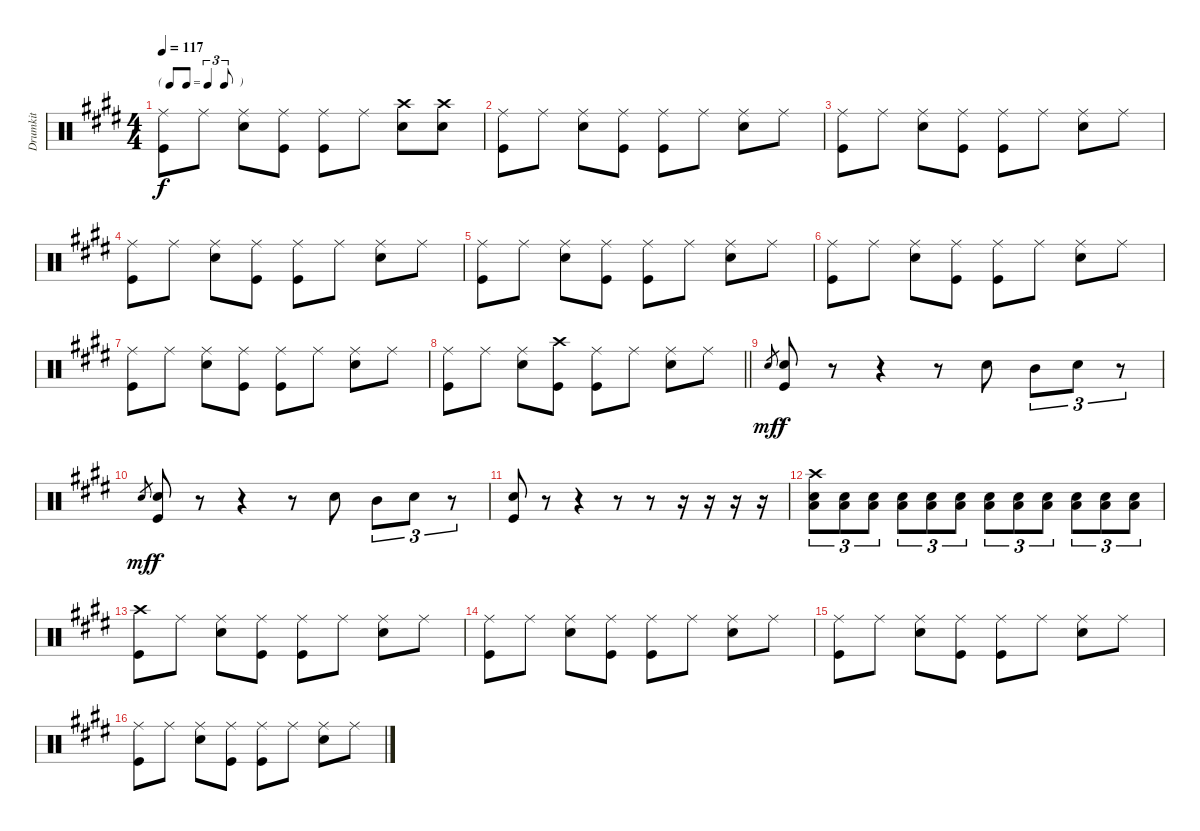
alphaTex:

\track ("Drumkit" "Drumkit") {instrument percussion}
\staff {score}
\articulation defaults
\ts (4 4)
\tf triplet8th
\tempo 117
\clef neutral
\ks e
("Ride (middle)" "Kick (hit)").8{dy f} "Ride (middle)".8 ("Ride (middle)" "Snare (hit) 2").8 ("Ride (middle)" "Kick (hit)").8 ("Ride (middle)" "Kick (hit)").8 "Ride (middle)".8 ("Crash high (hit)" "Snare (hit) 2").8 ("Crash high (hit)" "Snare (hit) 2").8 |
("Ride (middle)" "Kick (hit)").8 "Ride (middle)".8 ("Ride (middle)" "Snare (hit) 2").8 ("Ride (middle)" "Kick (hit)").8 ("Ride (middle)" "Kick (hit)").8 "Ride (middle)".8 ("Ride (middle)" "Snare (hit) 2").8 "Ride (middle)".8 |
("Ride (middle)" "Kick (hit)").8 "Ride (middle)".8 ("Ride (middle)" "Snare (hit) 2").8 ("Ride (middle)" "Kick (hit)").8 ("Ride (middle)" "Kick (hit)").8 "Ride (middle)".8 ("Ride (middle)" "Snare (hit) 2").8 "Ride (middle)".8 |
("Ride (middle)" "Kick (hit)").8 "Ride (middle)".8 ("Ride (middle)" "Snare (hit) 2").8 ("Ride (middle)" "Kick (hit)").8 ("Ride (middle)" "Kick (hit)").8 "Ride (middle)".8 ("Ride (middle)" "Snare (hit) 2").8 "Ride (middle)".8 |
("Ride (middle)" "Kick (hit)").8 "Ride (middle)".8 ("Ride (middle)" "Snare (hit) 2").8 ("Ride (middle)" "Kick (hit)").8 ("Ride (middle)" "Kick (hit)").8 "Ride (middle)".8 ("Ride (middle)" "Snare (hit) 2").8 "Ride (middle)".8 |
("Ride (middle)" "Kick (hit)").8 "Ride (middle)".8 ("Ride (middle)" "Snare (hit) 2").8 ("Ride (middle)" "Kick (hit)").8 ("Ride (middle)" "Kick (hit)").8 "Ride (middle)".8 ("Ride (middle)" "Snare (hit) 2").8 "Ride (middle)".8 |
("Ride (middle)" "Kick (hit)").8 "Ride (middle)".8 ("Ride (middle)" "Snare (hit) 2").8 ("Ride (middle)" "Kick (hit)").8 ("Ride (middle)" "Kick (hit)").8 "Ride (middle)".8 ("Ride (middle)" "Snare (hit) 2").8 "Ride (middle)".8 |
\barLineRight lightlight
("Ride (middle)" "Kick (hit)").8 "Ride (middle)".8 ("Ride (middle)" "Snare (hit) 2").8 ("Crash high (hit)" "Kick (hit)").8 ("Ride (middle)" "Kick (hit)").8 "Ride (middle)".8 ("Ride (middle)" "Snare (hit) 2").8 "Ride (middle)".8 |
"Snare (hit)".8{gr dy mf} ("Snare (hit) 2" "Kick (hit)").8{dy f} r.8 r.4 r.8 "Snare (hit) 2".8 "Mid Tom (hit)".8{tu (3 2)} "Snare (hit) 2".8{tu (3 2)} r.8{tu (3 2)} |
"Snare (hit)".8{gr dy mf} ("Snare (hit) 2" "Kick (hit)").8{dy f} r.8 r.4 r.8 "Snare (hit) 2".8 "Mid Tom (hit)".8{tu (3 2)} "Snare (hit) 2".8{tu (3 2)} r.8{tu (3 2)} |
("Snare (hit) 2" "Kick (hit)").8 r.8 r.4 r.8 r.8 r.16 r.16 r.16 r.16 |
("Crash high (hit)" "Snare (hit) 2" "Low Floor Tom (hit)").8{tu (3 2)} ("Snare (hit) 2" "Low Floor Tom (hit)").8{tu (3 2)} ("Snare (hit) 2" "Low Floor Tom (hit)").8{tu (3 2)} ("Snare (hit) 2" "Low Floor Tom (hit)").8{tu (3 2)} ("Snare (hit) 2" "Low Floor Tom (hit)").8{tu (3 2)} ("Snare (hit) 2" "Low Floor Tom (hit)").8{tu (3 2)} ("Snare (hit) 2" "Low Floor Tom (hit)").8{tu (3 2)} ("Snare (hit) 2" "Low Floor Tom (hit)").8{tu (3 2)} ("Snare (hit) 2" "Low Floor Tom (hit)").8{tu (3 2)} ("Snare (hit) 2" "Low Floor Tom (hit)").8{tu (3 2)} ("Snare (hit) 2" "Low Floor Tom (hit)").8{tu (3 2)} ("Snare (hit) 2" "Low Floor Tom (hit)").8{tu (3 2)} |
("Crash high (hit)" "Kick (hit)").8 "Ride (middle)".8 ("Ride (middle)" "Snare (hit) 2").8 ("Ride (middle)" "Kick (hit)").8 ("Ride (middle)" "Kick (hit)").8 "Ride (middle)".8 ("Ride (middle)" "Snare (hit) 2").8 "Ride (middle)".8 |
("Ride (middle)" "Kick (hit)").8 "Ride (middle)".8 ("Ride (middle)" "Snare (hit) 2").8 ("Ride (middle)" "Kick (hit)").8 ("Ride (middle)" "Kick (hit)").8 "Ride (middle)".8 ("Ride (middle)" "Snare (hit) 2").8 "Ride (middle)".8 |
("Ride (middle)" "Kick (hit)").8 "Ride (middle)".8 ("Ride (middle)" "Snare (hit) 2").8 ("Ride (middle)" "Kick (hit)").8 ("Ride (middle)" "Kick (hit)").8 "Ride (middle)".8 ("Ride (middle)" "Snare (hit) 2").8 "Ride (middle)".8 |
("Ride (middle)" "Kick (hit)").8 "Ride (middle)".8 ("Ride (middle)" "Snare (hit) 2").8 ("Ride (middle)" "Kick (hit)").8 ("Ride (middle)" "Kick (hit)").8 "Ride (middle)".8 ("Ride (middle)" "Snare (hit) 2").8 "Ride (middle)".8
